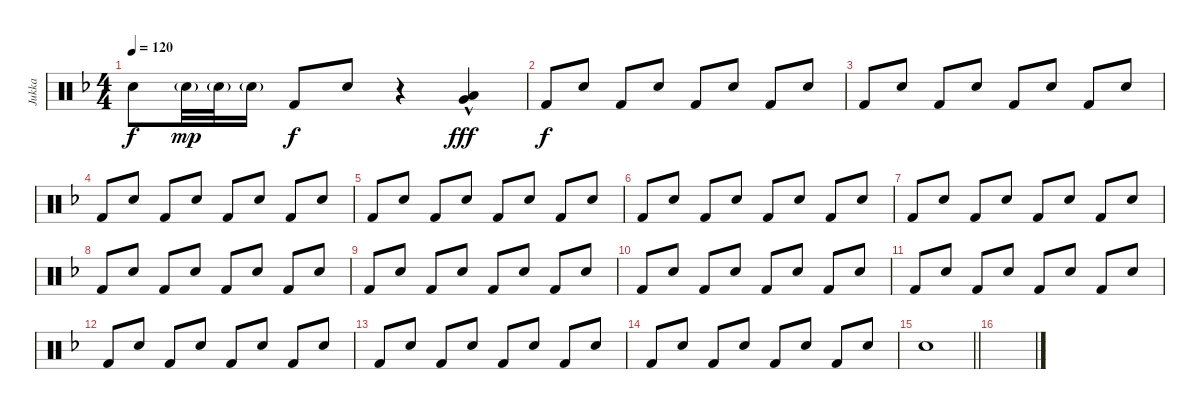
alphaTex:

\track ("Jukka" "Jukka") {instrument percussion}
\staff {score}
\articulation defaults
\ts (4 4)
\tempo 120
\clef neutral
\ks f "Electric Snare (hit)".8{dy f} "Electric Snare (hit)"{g}.32{dy mp} "Electric Snare (hit)"{g}.32 "Electric Snare (hit)"{g}.16 "Kick (hit) 2".8{dy f} "Electric Snare (hit)".8
r.4 ("Very Low Tom (hit)"{hac} "Low Tom (hit)"{hac}).4{dy fff} |
"Kick (hit) 2".8{dy f} "Electric Snare (hit)".8 "Kick (hit) 2".8 "Electric Snare (hit)".8 "Kick (hit) 2".8 "Electric Snare (hit)".8 "Kick (hit) 2".8 "Electric Snare (hit)".8 |
"Kick (hit) 2".8 "Electric Snare (hit)".8 "Kick (hit) 2".8 "Electric Snare (hit)".8 "Kick (hit) 2".8 "Electric Snare (hit)".8 "Kick (hit) 2".8 "Electric Snare (hit)".8 |
"Kick (hit) 2".8 "Electric Snare (hit)".8 "Kick (hit) 2".8 "Electric Snare (hit)".8 "Kick (hit) 2".8 "Electric Snare (hit)".8 "Kick (hit) 2".8 "Electric Snare (hit)".8 |
"Kick (hit) 2".8 "Electric Snare (hit)".8 "Kick (hit) 2".8 "Electric Snare (hit)".8 "Kick (hit) 2".8 "Electric Snare (hit)".8 "Kick (hit) 2".8 "Electric Snare (hit)".8 |
"Kick (hit) 2".8 "Electric Snare (hit)".8 "Kick (hit) 2".8 "Electric Snare (hit)".8 "Kick (hit) 2".8 "Electric Snare (hit)".8 "Kick (hit) 2".8 "Electric Snare (hit)".8 |
"Kick (hit) 2".8 "Electric Snare (hit)".8 "Kick (hit) 2".8 "Electric Snare (hit)".8 "Kick (hit) 2".8 "Electric Snare (hit)".8 "Kick (hit) 2".8 "Electric Snare (hit)".8 |
"Kick (hit) 2".8 "Electric Snare (hit)".8 "Kick (hit) 2".8 "Electric Snare (hit)".8 "Kick (hit) 2".8 "Electric Snare (hit)".8 "Kick (hit) 2".8 "Electric Snare (hit)".8 |
"Kick (hit) 2".8 "Electric Snare (hit)".8 "Kick (hit) 2".8 "Electric Snare (hit)".8 "Kick (hit) 2".8 "Electric Snare (hit)".8 "Kick (hit) 2".8 "Electric Snare (hit)".8 |
"Kick (hit) 2".8 "Electric Snare (hit)".8 "Kick (hit) 2".8 "Electric Snare (hit)".8 "Kick (hit) 2".8 "Electric Snare (hit)".8 "Kick (hit) 2".8 "Electric Snare (hit)".8 |
"Kick (hit) 2".8 "Electric Snare (hit)".8 "Kick (hit) 2".8 "Electric Snare (hit)".8 "Kick (hit) 2".8 "Electric Snare (hit)".8 "Kick (hit) 2".8 "Electric Snare (hit)".8 |
"Kick (hit) 2".8 "Electric Snare (hit)".8 "Kick (hit) 2".8 "Electric Snare (hit)".8 "Kick (hit) 2".8 "Electric Snare (hit)".8 "Kick (hit) 2".8 "Electric Snare (hit)".8 |
"Kick (hit) 2".8 "Electric Snare (hit)".8 "Kick (hit) 2".8 "Electric Snare (hit)".8 "Kick (hit) 2".8 "Electric Snare (hit)".8 "Kick (hit) 2".8 "Electric Snare (hit)".8 |
"Kick (hit) 2".8 "Electric Snare (hit)".8 "Kick (hit) 2".8 "Electric Snare (hit)".8 "Kick (hit) 2".8 "Electric Snare (hit)".8 "Kick (hit) 2".8 "Electric Snare (hit)".8 |
\barLineRight lightlight "Electric Snare (hit)".1
|
\section ("" "")
